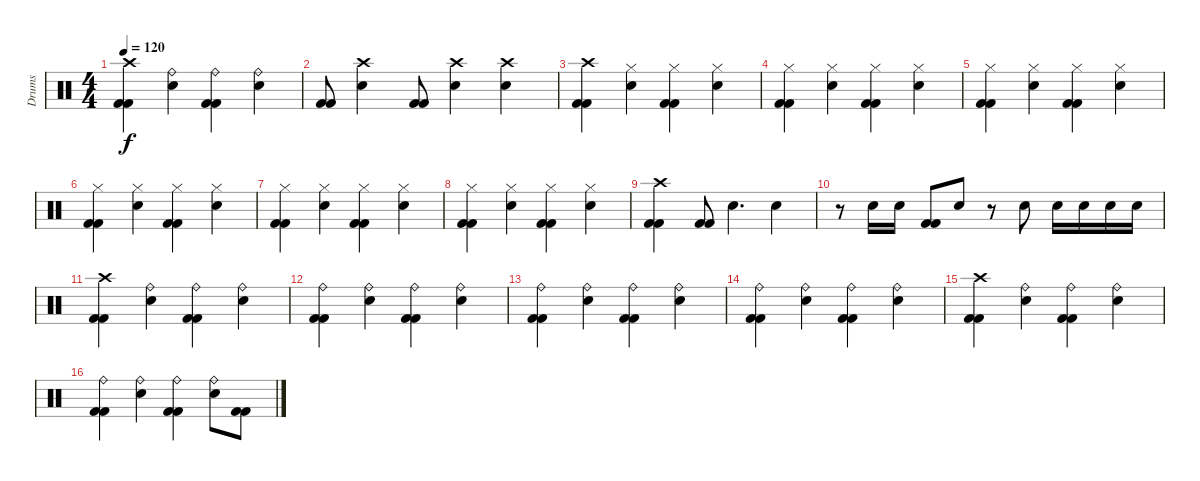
\track ("Drums" "Drums") {instrument percussion}
\staff {score}
\articulation defaults
\ts (4 4)
\tempo 120
\clef neutral
\ks c
("Crash high (hit)" "Kick (hit) 2" "Kick (hit) 2").4{dy f} ("Ride (bell)" "Snare (hit) 2").4 ("Ride (bell)" "Kick (hit) 2" "Kick (hit) 2").4 ("Ride (bell)" "Snare (hit) 2").4 |
("Kick (hit) 2" "Kick (hit) 2").8 ("Crash high (hit)" "Snare (hit) 2").4 ("Kick (hit) 2" "Kick (hit) 2").8 ("Crash high (hit)" "Snare (hit) 2").4 ("Crash high (hit)" "Snare (hit) 2").4 |
("Crash high (hit)" "Kick (hit) 2" "Kick (hit) 2").4 ("Hi-Hat (closed)" "Snare (hit) 2").4 ("Hi-Hat (closed)" "Kick (hit) 2" "Kick (hit) 2").4 ("Hi-Hat (closed)" "Snare (hit) 2").4 |
("Hi-Hat (closed)" "Kick (hit) 2" "Kick (hit) 2").4 ("Hi-Hat (closed)" "Snare (hit) 2").4 ("Hi-Hat (closed)" "Kick (hit) 2" "Kick (hit) 2").4 ("Hi-Hat (closed)" "Snare (hit) 2").4 |
("Hi-Hat (closed)" "Kick (hit) 2" "Kick (hit) 2").4 ("Hi-Hat (closed)" "Snare (hit) 2").4 ("Hi-Hat (closed)" "Kick (hit) 2" "Kick (hit) 2").4 ("Hi-Hat (closed)" "Snare (hit) 2").4 |
("Hi-Hat (closed)" "Kick (hit) 2" "Kick (hit) 2").4 ("Hi-Hat (closed)" "Snare (hit) 2").4 ("Hi-Hat (closed)" "Kick (hit) 2" "Kick (hit) 2").4 ("Hi-Hat (closed)" "Snare (hit) 2").4 |
("Hi-Hat (closed)" "Kick (hit) 2" "Kick (hit) 2").4 ("Hi-Hat (closed)" "Snare (hit) 2").4 ("Hi-Hat (closed)" "Kick (hit) 2" "Kick (hit) 2").4 ("Hi-Hat (closed)" "Snare (hit) 2").4 |
("Hi-Hat (closed)" "Kick (hit) 2" "Kick (hit) 2").4 ("Hi-Hat (closed)" "Snare (hit) 2").4 ("Hi-Hat (closed)" "Kick (hit) 2" "Kick (hit) 2").4 ("Hi-Hat (closed)" "Snare (hit) 2").4 |
("Crash high (hit)" "Kick (hit) 2" "Kick (hit) 2").4 ("Kick (hit) 2" "Kick (hit) 2").8 "Snare (hit) 2".4{d} "Snare (hit) 2".4 |
r.8 "Snare (hit) 2".16 "Snare (hit) 2".16 ("Kick (hit) 2" "Kick (hit) 2").8 "Snare (hit) 2".8 r.8 "Snare (hit) 2".8 "Snare (hit) 2".16 "Snare (hit) 2".16 "Snare (hit) 2".16 "Snare (hit) 2".16 |
("Crash high (hit)" "Kick (hit) 2" "Kick (hit) 2").4 ("Ride (bell)" "Snare (hit) 2").4 ("Ride (bell)" "Kick (hit) 2" "Kick (hit) 2").4 ("Ride (bell)" "Snare (hit) 2").4 |
("Ride (bell)" "Kick (hit) 2" "Kick (hit) 2").4 ("Ride (bell)" "Snare (hit) 2").4 ("Ride (bell)" "Kick (hit) 2" "Kick (hit) 2").4 ("Ride (bell)" "Snare (hit) 2").4 |
("Ride (bell)" "Kick (hit) 2" "Kick (hit) 2").4 ("Ride (bell)" "Snare (hit) 2").4 ("Ride (bell)" "Kick (hit) 2" "Kick (hit) 2").4 ("Ride (bell)" "Snare (hit) 2").4 |
("Ride (bell)" "Kick (hit) 2" "Kick (hit) 2").4 ("Ride (bell)" "Snare (hit) 2").4 ("Ride (bell)" "Kick (hit) 2" "Kick (hit) 2").4 ("Ride (bell)" "Snare (hit) 2").4 |
("Crash high (hit)" "Kick (hit) 2" "Kick (hit) 2").4 ("Ride (bell)" "Snare (hit) 2").4 ("Ride (bell)" "Kick (hit) 2" "Kick (hit) 2").4 ("Ride (bell)" "Snare (hit) 2").4 |
("Ride (bell)" "Kick (hit) 2" "Kick (hit) 2").4 ("Ride (bell)" "Snare (hit) 2").4 ("Ride (bell)" "Kick (hit) 2" "Kick (hit) 2").4 ("Ride (bell)" "Snare (hit) 2").8 ("Kick (hit) 2" "Kick (hit) 2").8
